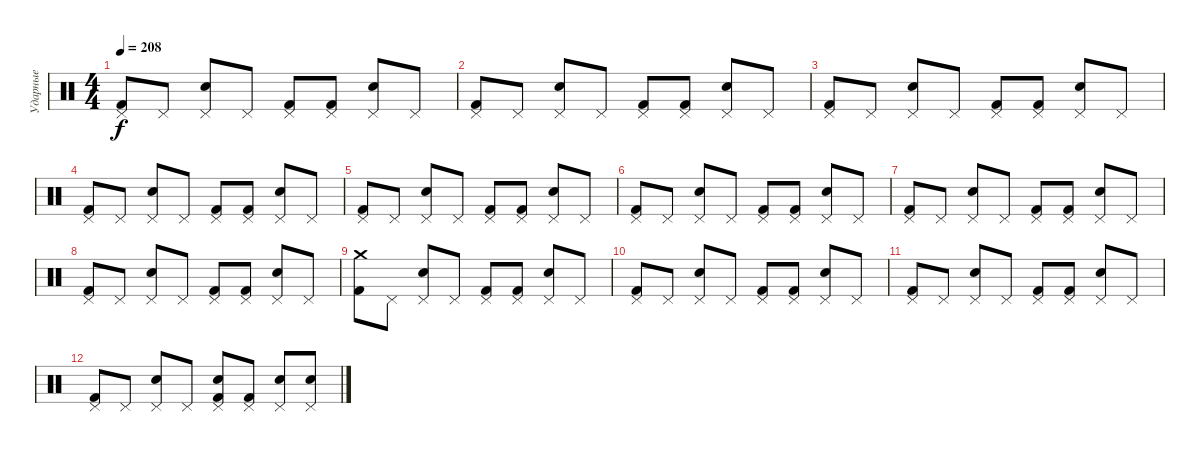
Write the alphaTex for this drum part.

\track ("Ударные" "Ударные") {instrument percussion}
\staff {score}
\articulation defaults
\ts (4 4)
\tempo 208
\clef neutral
\ks c
("Pedal Hi-Hat (hit)" "Kick (hit) 2").8{dy f} "Pedal Hi-Hat (hit)".8 ("Pedal Hi-Hat (hit)" "Electric Snare (hit)").8 "Pedal Hi-Hat (hit)".8 ("Pedal Hi-Hat (hit)" "Kick (hit) 2").8 ("Pedal Hi-Hat (hit)" "Kick (hit) 2").8 ("Pedal Hi-Hat (hit)" "Electric Snare (hit)").8 "Pedal Hi-Hat (hit)".8 |
("Pedal Hi-Hat (hit)" "Kick (hit) 2").8 "Pedal Hi-Hat (hit)".8 ("Pedal Hi-Hat (hit)" "Electric Snare (hit)").8 "Pedal Hi-Hat (hit)".8 ("Pedal Hi-Hat (hit)" "Kick (hit) 2").8 ("Pedal Hi-Hat (hit)" "Kick (hit) 2").8 ("Pedal Hi-Hat (hit)" "Electric Snare (hit)").8 "Pedal Hi-Hat (hit)".8 |
("Pedal Hi-Hat (hit)" "Kick (hit) 2").8 "Pedal Hi-Hat (hit)".8 ("Pedal Hi-Hat (hit)" "Electric Snare (hit)").8 "Pedal Hi-Hat (hit)".8 ("Pedal Hi-Hat (hit)" "Kick (hit) 2").8 ("Pedal Hi-Hat (hit)" "Kick (hit) 2").8 ("Pedal Hi-Hat (hit)" "Electric Snare (hit)").8 "Pedal Hi-Hat (hit)".8 |
("Pedal Hi-Hat (hit)" "Kick (hit) 2").8 "Pedal Hi-Hat (hit)".8 ("Pedal Hi-Hat (hit)" "Electric Snare (hit)").8 "Pedal Hi-Hat (hit)".8 ("Pedal Hi-Hat (hit)" "Kick (hit) 2").8 ("Pedal Hi-Hat (hit)" "Kick (hit) 2").8 ("Pedal Hi-Hat (hit)" "Electric Snare (hit)").8 "Pedal Hi-Hat (hit)".8 |
("Pedal Hi-Hat (hit)" "Kick (hit) 2").8 "Pedal Hi-Hat (hit)".8 ("Pedal Hi-Hat (hit)" "Electric Snare (hit)").8 "Pedal Hi-Hat (hit)".8 ("Pedal Hi-Hat (hit)" "Kick (hit) 2").8 ("Pedal Hi-Hat (hit)" "Kick (hit) 2").8 ("Pedal Hi-Hat (hit)" "Electric Snare (hit)").8 "Pedal Hi-Hat (hit)".8 |
("Pedal Hi-Hat (hit)" "Kick (hit) 2").8 "Pedal Hi-Hat (hit)".8 ("Pedal Hi-Hat (hit)" "Electric Snare (hit)").8 "Pedal Hi-Hat (hit)".8 ("Pedal Hi-Hat (hit)" "Kick (hit) 2").8 ("Pedal Hi-Hat (hit)" "Kick (hit) 2").8 ("Pedal Hi-Hat (hit)" "Electric Snare (hit)").8 "Pedal Hi-Hat (hit)".8 |
("Pedal Hi-Hat (hit)" "Kick (hit) 2").8 "Pedal Hi-Hat (hit)".8 ("Pedal Hi-Hat (hit)" "Electric Snare (hit)").8 "Pedal Hi-Hat (hit)".8 ("Pedal Hi-Hat (hit)" "Kick (hit) 2").8 ("Pedal Hi-Hat (hit)" "Kick (hit) 2").8 ("Pedal Hi-Hat (hit)" "Electric Snare (hit)").8 "Pedal Hi-Hat (hit)".8 |
("Pedal Hi-Hat (hit)" "Kick (hit) 2").8 "Pedal Hi-Hat (hit)".8 ("Pedal Hi-Hat (hit)" "Electric Snare (hit)").8 "Pedal Hi-Hat (hit)".8 ("Pedal Hi-Hat (hit)" "Kick (hit) 2").8 ("Pedal Hi-Hat (hit)" "Kick (hit) 2").8 ("Pedal Hi-Hat (hit)" "Electric Snare (hit)").8 "Pedal Hi-Hat (hit)".8 |
("Crash medium (hit)" "Kick (hit) 2").8 "Pedal Hi-Hat (hit)".8 ("Pedal Hi-Hat (hit)" "Electric Snare (hit)").8 "Pedal Hi-Hat (hit)".8 ("Pedal Hi-Hat (hit)" "Kick (hit) 2").8 ("Pedal Hi-Hat (hit)" "Kick (hit) 2").8 ("Pedal Hi-Hat (hit)" "Electric Snare (hit)").8 "Pedal Hi-Hat (hit)".8 |
("Pedal Hi-Hat (hit)" "Kick (hit) 2").8 "Pedal Hi-Hat (hit)".8 ("Pedal Hi-Hat (hit)" "Electric Snare (hit)").8 "Pedal Hi-Hat (hit)".8 ("Pedal Hi-Hat (hit)" "Kick (hit) 2").8 ("Pedal Hi-Hat (hit)" "Kick (hit) 2").8 ("Pedal Hi-Hat (hit)" "Electric Snare (hit)").8 "Pedal Hi-Hat (hit)".8 |
("Pedal Hi-Hat (hit)" "Kick (hit) 2").8 "Pedal Hi-Hat (hit)".8 ("Pedal Hi-Hat (hit)" "Electric Snare (hit)").8 "Pedal Hi-Hat (hit)".8 ("Pedal Hi-Hat (hit)" "Kick (hit) 2").8 ("Pedal Hi-Hat (hit)" "Kick (hit) 2").8 ("Pedal Hi-Hat (hit)" "Electric Snare (hit)").8 "Pedal Hi-Hat (hit)".8 |
("Pedal Hi-Hat (hit)" "Kick (hit) 2").8 "Pedal Hi-Hat (hit)".8 ("Pedal Hi-Hat (hit)" "Electric Snare (hit)").8 "Pedal Hi-Hat (hit)".8 ("Pedal Hi-Hat (hit)" "Electric Snare (hit)" "Kick (hit) 2").8 ("Pedal Hi-Hat (hit)" "Kick (hit) 2").8 ("Pedal Hi-Hat (hit)" "Electric Snare (hit)").8 ("Pedal Hi-Hat (hit)" "Electric Snare (hit)").8
